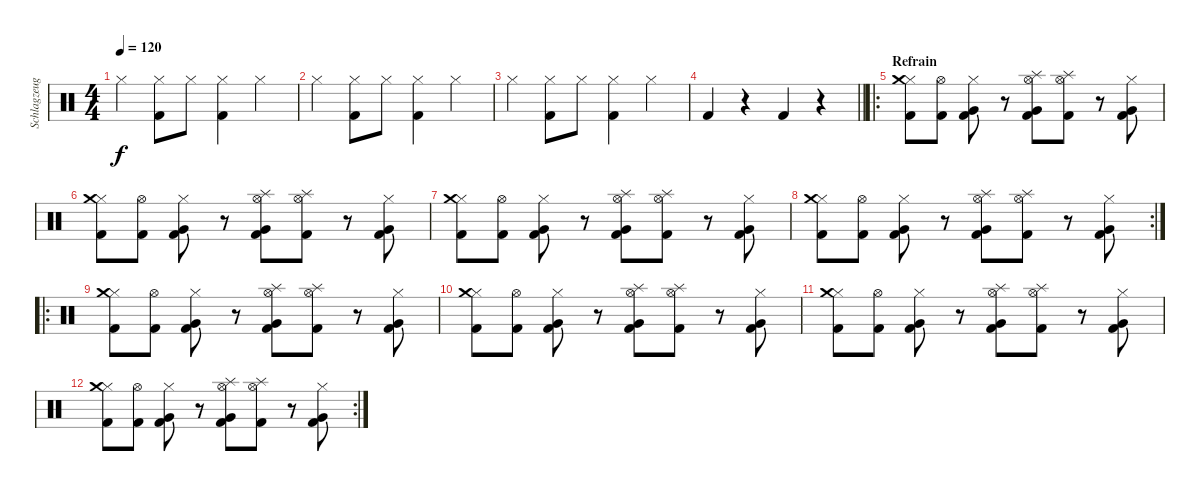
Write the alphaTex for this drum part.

\track ("Schlagzeug" "Schlagzeug") {instrument percussion}
\staff {score}
\articulation defaults
\ts (4 4)
\tempo 120
\clef neutral
\ks c "Hi-Hat (closed)".4{dy f}
("Hi-Hat (closed)" "Kick (hit) 2").8 "Hi-Hat (closed)".8 ("Hi-Hat (closed)" "Kick (hit) 2").4 "Hi-Hat (closed)".4 |
"Hi-Hat (closed)".4 ("Hi-Hat (closed)" "Kick (hit) 2").8 "Hi-Hat (closed)".8 ("Hi-Hat (closed)" "Kick (hit) 2").4 "Hi-Hat (closed)".4 |
"Hi-Hat (closed)".4 ("Hi-Hat (closed)" "Kick (hit) 2").8 "Hi-Hat (closed)".8 ("Hi-Hat (closed)" "Kick (hit) 2").4 "Hi-Hat (closed)".4 |
\barLineRight lightlight "Kick (hit) 2".4
r.4 "Kick (hit) 2".4 r.4 |
\ro
\section ("" "Refrain")
("Hi-Hat (closed)" "Crash medium (hit)" "Kick (hit) 2").8 ("Hi-Hat (open)" "Kick (hit) 2").8 ("Hi-Hat (closed)" "Very Low Tom (hit)" "Kick (hit) 2").8 r.8 ("Hi-Hat (open)" "Splash (hit)" "Very Low Tom (hit)" "Kick (hit) 2").8 ("Hi-Hat (open)" "Splash (hit)" "Kick (hit) 2").8 r.8 ("Hi-Hat (closed)" "Very Low Tom (hit)" "Kick (hit) 2").8 |
("Hi-Hat (closed)" "Crash medium (hit)" "Kick (hit) 2").8 ("Hi-Hat (open)" "Kick (hit) 2").8 ("Hi-Hat (closed)" "Very Low Tom (hit)" "Kick (hit) 2").8 r.8 ("Hi-Hat (open)" "Splash (hit)" "Very Low Tom (hit)" "Kick (hit) 2").8 ("Hi-Hat (open)" "Splash (hit)" "Kick (hit) 2").8 r.8 ("Hi-Hat (closed)" "Very Low Tom (hit)" "Kick (hit) 2").8 |
("Hi-Hat (closed)" "Crash medium (hit)" "Kick (hit) 2").8 ("Hi-Hat (open)" "Kick (hit) 2").8 ("Hi-Hat (closed)" "Very Low Tom (hit)" "Kick (hit) 2").8 r.8 ("Hi-Hat (open)" "Splash (hit)" "Very Low Tom (hit)" "Kick (hit) 2").8 ("Hi-Hat (open)" "Splash (hit)" "Kick (hit) 2").8 r.8 ("Hi-Hat (closed)" "Very Low Tom (hit)" "Kick (hit) 2").8 |
\rc 2
("Hi-Hat (closed)" "Crash medium (hit)" "Kick (hit) 2").8 ("Hi-Hat (open)" "Kick (hit) 2").8 ("Hi-Hat (closed)" "Very Low Tom (hit)" "Kick (hit) 2").8 r.8 ("Hi-Hat (open)" "Splash (hit)" "Very Low Tom (hit)" "Kick (hit) 2").8 ("Hi-Hat (open)" "Splash (hit)" "Kick (hit) 2").8 r.8 ("Hi-Hat (closed)" "Very Low Tom (hit)" "Kick (hit) 2").8 |
\ro
("Hi-Hat (closed)" "Crash medium (hit)" "Kick (hit) 2").8 ("Hi-Hat (open)" "Kick (hit) 2").8 ("Hi-Hat (closed)" "Very Low Tom (hit)" "Kick (hit) 2").8 r.8 ("Hi-Hat (open)" "Splash (hit)" "Very Low Tom (hit)" "Kick (hit) 2").8 ("Hi-Hat (open)" "Splash (hit)" "Kick (hit) 2").8 r.8 ("Hi-Hat (closed)" "Very Low Tom (hit)" "Kick (hit) 2").8 |
("Hi-Hat (closed)" "Crash medium (hit)" "Kick (hit) 2").8 ("Hi-Hat (open)" "Kick (hit) 2").8 ("Hi-Hat (closed)" "Very Low Tom (hit)" "Kick (hit) 2").8 r.8 ("Hi-Hat (open)" "Splash (hit)" "Very Low Tom (hit)" "Kick (hit) 2").8 ("Hi-Hat (open)" "Splash (hit)" "Kick (hit) 2").8 r.8 ("Hi-Hat (closed)" "Very Low Tom (hit)" "Kick (hit) 2").8 |
("Hi-Hat (closed)" "Crash medium (hit)" "Kick (hit) 2").8 ("Hi-Hat (open)" "Kick (hit) 2").8 ("Hi-Hat (closed)" "Very Low Tom (hit)" "Kick (hit) 2").8 r.8 ("Hi-Hat (open)" "Splash (hit)" "Very Low Tom (hit)" "Kick (hit) 2").8 ("Hi-Hat (open)" "Splash (hit)" "Kick (hit) 2").8 r.8 ("Hi-Hat (closed)" "Very Low Tom (hit)" "Kick (hit) 2").8 |
\rc 2
("Hi-Hat (closed)" "Crash medium (hit)" "Kick (hit) 2").8 ("Hi-Hat (open)" "Kick (hit) 2").8 ("Hi-Hat (closed)" "Very Low Tom (hit)" "Kick (hit) 2").8 r.8 ("Hi-Hat (open)" "Splash (hit)" "Very Low Tom (hit)" "Kick (hit) 2").8 ("Hi-Hat (open)" "Splash (hit)" "Kick (hit) 2").8 r.8 ("Hi-Hat (closed)" "Very Low Tom (hit)" "Kick (hit) 2").8
